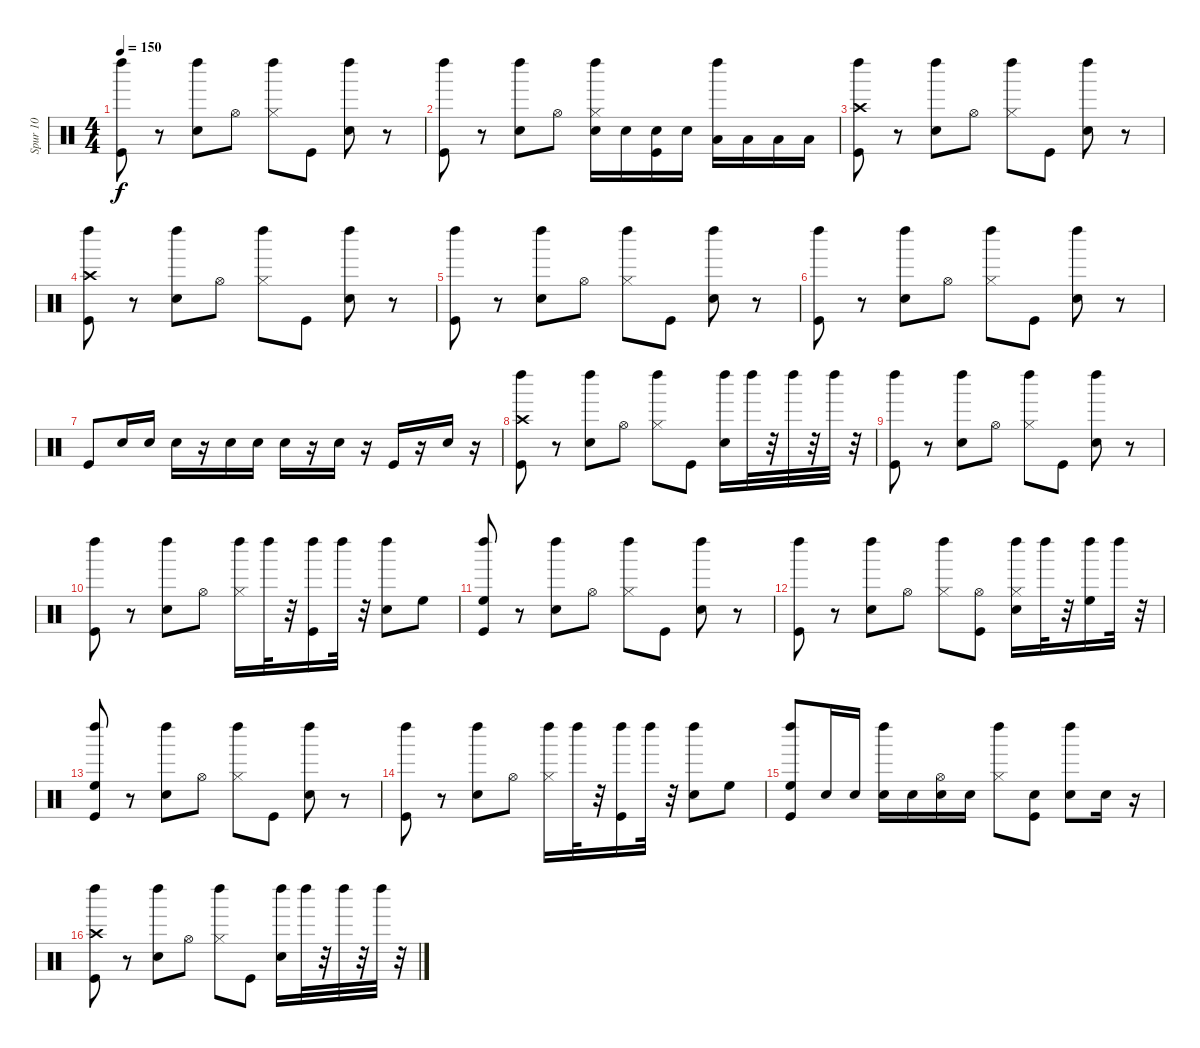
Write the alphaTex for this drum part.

\track ("Spur 10" "Spur 10") {instrument percussion}
\staff {score}
\articulation defaults
\ts (4 4)
\tempo 150
\clef neutral
\ks c
("Kick (hit)" "Left Maraca (hit)").8{dy f} r.8 ("Snare (hit) 2" "Left Maraca (hit)").8 "Hi-Hat (open)".8 ("Hi-Hat (closed)" "Left Maraca (hit)").8 "Kick (hit)".8 ("Snare (hit) 2" "Left Maraca (hit)").8 r.8 |
("Kick (hit)" "Left Maraca (hit)").8 r.8 ("Snare (hit) 2" "Left Maraca (hit)").8 "Hi-Hat (open)".8 ("Electric Snare (hit)" "Hi-Hat (closed)" "Left Maraca (hit)").16 "Electric Snare (hit)".16 ("Electric Snare (hit)" "Kick (hit)").16 "Electric Snare (hit)".16 ("Low Tom (hit)" "Left Maraca (hit)").16 "Low Tom (hit)".16 "Low Tom (hit)".16 "Low Tom (hit)".16 |
("Crash high (hit)" "Kick (hit)" "Left Maraca (hit)").8 r.8 ("Snare (hit) 2" "Left Maraca (hit)").8 "Hi-Hat (open)".8 ("Hi-Hat (closed)" "Left Maraca (hit)").8 "Kick (hit)".8 ("Snare (hit) 2" "Left Maraca (hit)").8 r.8 |
("Crash high (hit)" "Kick (hit)" "Left Maraca (hit)").8 r.8 ("Snare (hit) 2" "Left Maraca (hit)").8 "Hi-Hat (open)".8 ("Hi-Hat (closed)" "Left Maraca (hit)").8 "Kick (hit)".8 ("Snare (hit) 2" "Left Maraca (hit)").8 r.8 |
("Kick (hit)" "Left Maraca (hit)").8 r.8 ("Snare (hit) 2" "Left Maraca (hit)").8 "Hi-Hat (open)".8 ("Hi-Hat (closed)" "Left Maraca (hit)").8 "Kick (hit)".8 ("Snare (hit) 2" "Left Maraca (hit)").8 r.8 |
("Kick (hit)" "Left Maraca (hit)").8 r.8 ("Snare (hit) 2" "Left Maraca (hit)").8 "Hi-Hat (open)".8 ("Hi-Hat (closed)" "Left Maraca (hit)").8 "Kick (hit)".8 ("Snare (hit) 2" "Left Maraca (hit)").8 r.8 |
"Kick (hit)".8 "Electric Snare (hit)".16 "Electric Snare (hit)".16 "Electric Snare (hit)".16 r.16 "Electric Snare (hit)".16 "Electric Snare (hit)".16 "Electric Snare (hit)".16 r.16 "Electric Snare (hit)".16 r.16 "Kick (hit)".16 r.16 "Electric Snare (hit)".16 r.16 |
("Kick (hit)" "Crash high (hit)" "Left Maraca (hit)").8 r.8 ("Snare (hit) 2" "Left Maraca (hit)").8 "Hi-Hat (open)".8 ("Hi-Hat (closed)" "Left Maraca (hit)").8 "Kick (hit)".8 ("Snare (hit) 2" "Left Maraca (hit)").16 "Left Maraca (hit)".32 r.32 "Left Maraca (hit)".32 r.32 "Left Maraca (hit)".32 r.32 |
("Kick (hit)" "Left Maraca (hit)").8 r.8 ("Snare (hit) 2" "Left Maraca (hit)").8 "Hi-Hat (open)".8 ("Hi-Hat (closed)" "Left Maraca (hit)").8 "Kick (hit)".8 ("Snare (hit) 2" "Left Maraca (hit)").8 r.8 |
("Kick (hit)" "Left Maraca (hit)").8 r.8 ("Snare (hit) 2" "Left Maraca (hit)").8 "Hi-Hat (open)".8 ("Hi-Hat (closed)" "Left Maraca (hit)").16 "Left Maraca (hit)".32 r.32 ("Kick (hit)" "Left Maraca (hit)").16 "Left Maraca (hit)".32 r.32 ("Snare (hit) 2" "Left Maraca (hit)").8 "High Floor Tom (hit)".8 |
("High Floor Tom (hit)" "Kick (hit)" "Left Maraca (hit)").8 r.8 ("Snare (hit) 2" "Left Maraca (hit)").8 "Hi-Hat (open)".8 ("Hi-Hat (closed)" "Left Maraca (hit)").8 "Kick (hit)".8 ("Snare (hit) 2" "Left Maraca (hit)").8 r.8 |
("Kick (hit)" "Left Maraca (hit)").8 r.8 ("Snare (hit) 2" "Left Maraca (hit)").8 "Hi-Hat (open)".8 ("Hi-Hat (closed)" "Left Maraca (hit)").8 ("Hi-Hat (open)" "Kick (hit)").8 ("Hi-Hat (closed)" "Snare (hit) 2" "Left Maraca (hit)").16 "Left Maraca (hit)".32 r.32 ("High Floor Tom (hit)" "Left Maraca (hit)").16 "Left Maraca (hit)".32 r.32 |
("High Floor Tom (hit)" "Kick (hit)" "Left Maraca (hit)").8 r.8 ("Snare (hit) 2" "Left Maraca (hit)").8 "Hi-Hat (open)".8 ("Hi-Hat (closed)" "Left Maraca (hit)").8 "Kick (hit)".8 ("Snare (hit) 2" "Left Maraca (hit)").8 r.8 |
("Kick (hit)" "Left Maraca (hit)").8 r.8 ("Snare (hit) 2" "Left Maraca (hit)").8 "Hi-Hat (open)".8 ("Hi-Hat (closed)" "Left Maraca (hit)").16 "Left Maraca (hit)".32 r.32 ("Kick (hit)" "Left Maraca (hit)").16 "Left Maraca (hit)".32 r.32 ("Snare (hit) 2" "Left Maraca (hit)").8 "High Floor Tom (hit)".8 |
("High Floor Tom (hit)" "Kick (hit)" "Left Maraca (hit)").8 "Electric Snare (hit)".16 "Electric Snare (hit)".16 ("Electric Snare (hit)" "Left Maraca (hit)").16 "Electric Snare (hit)".16 ("Electric Snare (hit)" "Hi-Hat (open)").16 "Electric Snare (hit)".16 ("Hi-Hat (closed)" "Left Maraca (hit)").8 ("Electric Snare (hit)" "Kick (hit)").8 ("Snare (hit) 2" "Left Maraca (hit)").8 "Electric Snare (hit)".16 r.16 |
("Crash high (hit)" "Kick (hit)" "Left Maraca (hit)").8 r.8 ("Snare (hit) 2" "Left Maraca (hit)").8 "Hi-Hat (open)".8 ("Hi-Hat (closed)" "Left Maraca (hit)").8 "Kick (hit)".8 ("Snare (hit) 2" "Left Maraca (hit)").16 "Left Maraca (hit)".32 r.32 "Left Maraca (hit)".32 r.32 "Left Maraca (hit)".32 r.32
